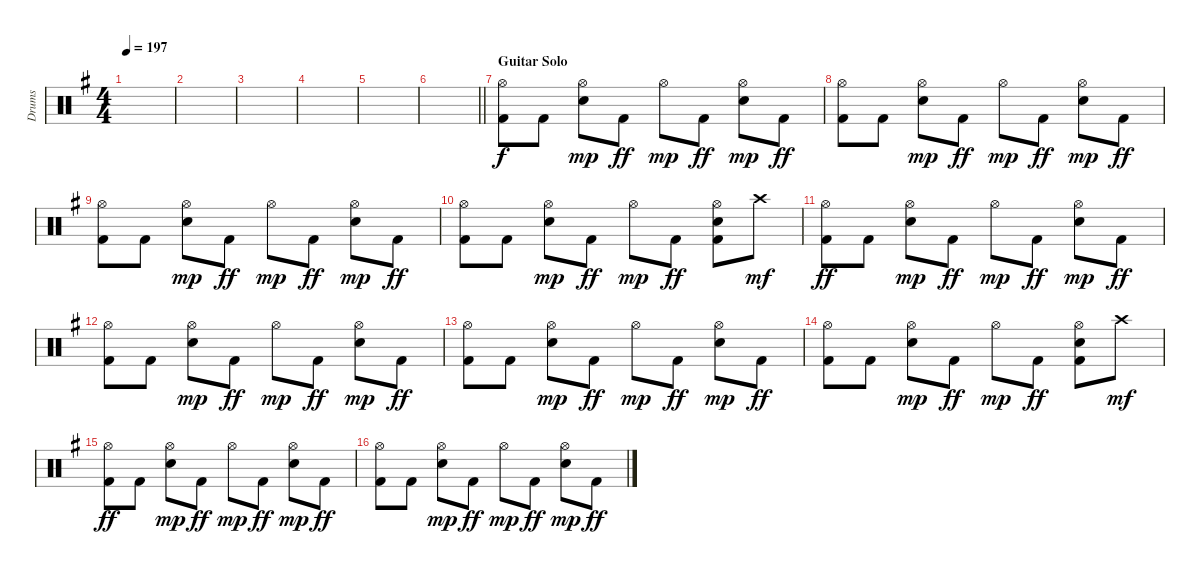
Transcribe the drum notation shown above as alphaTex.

\track ("Drums" "Drums") {instrument percussion}
\staff {score}
\articulation defaults
\ts (4 4)
\tempo 197
\clef neutral
\ks g
|
|
|
|
|
\barLineRight lightlight
|
\section ("" "Guitar Solo")
("Hi-Hat (open)" "Kick (hit) 2").8 "Kick (hit) 2".8 ("Hi-Hat (open)" "Snare (hit) 2").8{dy mp} "Kick (hit) 2".8{dy ff} "Hi-Hat (open)".8{dy mp} "Kick (hit) 2".8{dy ff} ("Hi-Hat (open)" "Snare (hit) 2").8{dy mp} "Kick (hit) 2".8{dy ff} |
("Hi-Hat (open)" "Kick (hit) 2").8 "Kick (hit) 2".8 ("Hi-Hat (open)" "Snare (hit) 2").8{dy mp} "Kick (hit) 2".8{dy ff} "Hi-Hat (open)".8{dy mp} "Kick (hit) 2".8{dy ff} ("Hi-Hat (open)" "Snare (hit) 2").8{dy mp} "Kick (hit) 2".8{dy ff} |
("Hi-Hat (open)" "Kick (hit) 2").8 "Kick (hit) 2".8 ("Hi-Hat (open)" "Snare (hit) 2").8{dy mp} "Kick (hit) 2".8{dy ff} "Hi-Hat (open)".8{dy mp} "Kick (hit) 2".8{dy ff} ("Hi-Hat (open)" "Snare (hit) 2").8{dy mp} "Kick (hit) 2".8{dy ff} |
("Hi-Hat (open)" "Kick (hit) 2").8 "Kick (hit) 2".8 ("Hi-Hat (open)" "Snare (hit) 2").8{dy mp} "Kick (hit) 2".8{dy ff} "Hi-Hat (open)".8{dy mp} "Kick (hit) 2".8{dy ff} ("Hi-Hat (open)" "Snare (hit) 2" "Kick (hit) 2").8 "Crash high (hit)".8{dy mf} |
("Hi-Hat (open)" "Kick (hit) 2").8{dy ff} "Kick (hit) 2".8 ("Hi-Hat (open)" "Snare (hit) 2").8{dy mp} "Kick (hit) 2".8{dy ff} "Hi-Hat (open)".8{dy mp} "Kick (hit) 2".8{dy ff} ("Hi-Hat (open)" "Snare (hit) 2").8{dy mp} "Kick (hit) 2".8{dy ff} |
("Hi-Hat (open)" "Kick (hit) 2").8 "Kick (hit) 2".8 ("Hi-Hat (open)" "Snare (hit) 2").8{dy mp} "Kick (hit) 2".8{dy ff} "Hi-Hat (open)".8{dy mp} "Kick (hit) 2".8{dy ff} ("Hi-Hat (open)" "Snare (hit) 2").8{dy mp} "Kick (hit) 2".8{dy ff} |
("Hi-Hat (open)" "Kick (hit) 2").8 "Kick (hit) 2".8 ("Hi-Hat (open)" "Snare (hit) 2").8{dy mp} "Kick (hit) 2".8{dy ff} "Hi-Hat (open)".8{dy mp} "Kick (hit) 2".8{dy ff} ("Hi-Hat (open)" "Snare (hit) 2").8{dy mp} "Kick (hit) 2".8{dy ff} |
("Hi-Hat (open)" "Kick (hit) 2").8 "Kick (hit) 2".8 ("Hi-Hat (open)" "Snare (hit) 2").8{dy mp} "Kick (hit) 2".8{dy ff} "Hi-Hat (open)".8{dy mp} "Kick (hit) 2".8{dy ff} ("Hi-Hat (open)" "Snare (hit) 2" "Kick (hit) 2").8 "Crash high (hit)".8{dy mf} |
("Hi-Hat (open)" "Kick (hit) 2").8{dy ff} "Kick (hit) 2".8 ("Hi-Hat (open)" "Snare (hit) 2").8{dy mp} "Kick (hit) 2".8{dy ff} "Hi-Hat (open)".8{dy mp} "Kick (hit) 2".8{dy ff} ("Hi-Hat (open)" "Snare (hit) 2").8{dy mp} "Kick (hit) 2".8{dy ff} |
("Hi-Hat (open)" "Kick (hit) 2").8 "Kick (hit) 2".8 ("Hi-Hat (open)" "Snare (hit) 2").8{dy mp} "Kick (hit) 2".8{dy ff} "Hi-Hat (open)".8{dy mp} "Kick (hit) 2".8{dy ff} ("Hi-Hat (open)" "Snare (hit) 2").8{dy mp} "Kick (hit) 2".8{dy ff}
